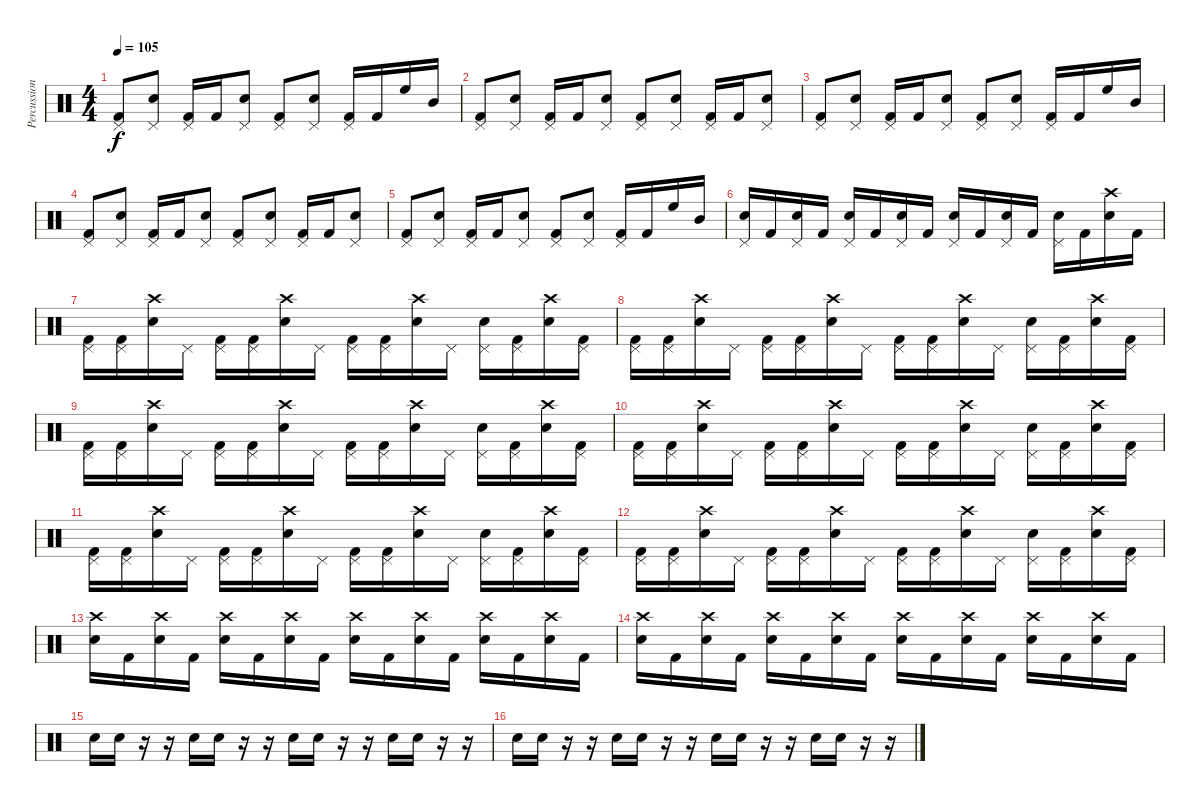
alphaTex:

\track ("Percussion" "Percussion") {instrument percussion}
\staff {score}
\articulation defaults
\ts (4 4)
\tempo 105
\clef neutral
\ks c
("Pedal Hi-Hat (hit)" "Kick (hit) 2").8{dy f} ("Pedal Hi-Hat (hit)" "Electric Snare (hit)").8 ("Pedal Hi-Hat (hit)" "Kick (hit) 2").16 "Kick (hit) 2".16 ("Pedal Hi-Hat (hit)" "Electric Snare (hit)").8 ("Pedal Hi-Hat (hit)" "Kick (hit) 2").8 ("Pedal Hi-Hat (hit)" "Electric Snare (hit)").8 ("Pedal Hi-Hat (hit)" "Kick (hit) 2").16 "Kick (hit) 2".16 "High Floor Tom (hit)".16 "Mid Tom (hit)".16 |
("Pedal Hi-Hat (hit)" "Kick (hit) 2").8 ("Pedal Hi-Hat (hit)" "Electric Snare (hit)").8 ("Pedal Hi-Hat (hit)" "Kick (hit) 2").16 "Kick (hit) 2".16 ("Pedal Hi-Hat (hit)" "Electric Snare (hit)").8 ("Pedal Hi-Hat (hit)" "Kick (hit) 2").8 ("Pedal Hi-Hat (hit)" "Electric Snare (hit)").8 ("Pedal Hi-Hat (hit)" "Kick (hit) 2").16 "Kick (hit) 2".16 ("Pedal Hi-Hat (hit)" "Electric Snare (hit)").8 |
("Pedal Hi-Hat (hit)" "Kick (hit) 2").8 ("Pedal Hi-Hat (hit)" "Electric Snare (hit)").8 ("Pedal Hi-Hat (hit)" "Kick (hit) 2").16 "Kick (hit) 2".16 ("Pedal Hi-Hat (hit)" "Electric Snare (hit)").8 ("Pedal Hi-Hat (hit)" "Kick (hit) 2").8 ("Pedal Hi-Hat (hit)" "Electric Snare (hit)").8 ("Pedal Hi-Hat (hit)" "Kick (hit) 2").16 "Kick (hit) 2".16 "High Floor Tom (hit)".16 "Mid Tom (hit)".16 |
("Pedal Hi-Hat (hit)" "Kick (hit) 2").8 ("Pedal Hi-Hat (hit)" "Electric Snare (hit)").8 ("Pedal Hi-Hat (hit)" "Kick (hit) 2").16 "Kick (hit) 2".16 ("Pedal Hi-Hat (hit)" "Electric Snare (hit)").8 ("Pedal Hi-Hat (hit)" "Kick (hit) 2").8 ("Pedal Hi-Hat (hit)" "Electric Snare (hit)").8 ("Pedal Hi-Hat (hit)" "Kick (hit) 2").16 "Kick (hit) 2".16 ("Pedal Hi-Hat (hit)" "Electric Snare (hit)").8 |
("Pedal Hi-Hat (hit)" "Kick (hit) 2").8 ("Pedal Hi-Hat (hit)" "Electric Snare (hit)").8 ("Pedal Hi-Hat (hit)" "Kick (hit) 2").16 "Kick (hit) 2".16 ("Pedal Hi-Hat (hit)" "Electric Snare (hit)").8 ("Pedal Hi-Hat (hit)" "Kick (hit) 2").8 ("Pedal Hi-Hat (hit)" "Electric Snare (hit)").8 ("Pedal Hi-Hat (hit)" "Kick (hit) 2").16 "Kick (hit) 2".16 "High Floor Tom (hit)".16 "Mid Tom (hit)".16 |
("Pedal Hi-Hat (hit)" "Electric Snare (hit)").16 "Kick (hit) 2".16 ("Pedal Hi-Hat (hit)" "Electric Snare (hit)").16 "Kick (hit) 2".16 ("Pedal Hi-Hat (hit)" "Electric Snare (hit)").16 "Kick (hit) 2".16 ("Pedal Hi-Hat (hit)" "Electric Snare (hit)").16 "Kick (hit) 2".16 ("Pedal Hi-Hat (hit)" "Electric Snare (hit)").16 "Kick (hit) 2".16 ("Pedal Hi-Hat (hit)" "Electric Snare (hit)").16 "Kick (hit) 2".16 ("Pedal Hi-Hat (hit)" "Electric Snare (hit)").16 "Kick (hit) 2".16 ("Crash high (hit)" "Electric Snare (hit)").16 "Kick (hit) 2".16 |
("Pedal Hi-Hat (hit)" "Kick (hit) 2").16 ("Pedal Hi-Hat (hit)" "Kick (hit) 2").16 ("Crash high (hit)" "Electric Snare (hit)").16 "Pedal Hi-Hat (hit)".16 ("Pedal Hi-Hat (hit)" "Kick (hit) 2").16 ("Pedal Hi-Hat (hit)" "Kick (hit) 2").16 ("Crash high (hit)" "Electric Snare (hit)").16 "Pedal Hi-Hat (hit)".16 ("Pedal Hi-Hat (hit)" "Kick (hit) 2").16 ("Pedal Hi-Hat (hit)" "Kick (hit) 2").16 ("Crash high (hit)" "Electric Snare (hit)").16 "Pedal Hi-Hat (hit)".16 ("Pedal Hi-Hat (hit)" "Electric Snare (hit)").16 ("Pedal Hi-Hat (hit)" "Kick (hit) 2").16 ("Crash high (hit)" "Electric Snare (hit)").16 ("Pedal Hi-Hat (hit)" "Kick (hit) 2").16 |
("Pedal Hi-Hat (hit)" "Kick (hit) 2").16 ("Pedal Hi-Hat (hit)" "Kick (hit) 2").16 ("Crash high (hit)" "Electric Snare (hit)").16 "Pedal Hi-Hat (hit)".16 ("Pedal Hi-Hat (hit)" "Kick (hit) 2").16 ("Pedal Hi-Hat (hit)" "Kick (hit) 2").16 ("Crash high (hit)" "Electric Snare (hit)").16 "Pedal Hi-Hat (hit)".16 ("Pedal Hi-Hat (hit)" "Kick (hit) 2").16 ("Pedal Hi-Hat (hit)" "Kick (hit) 2").16 ("Crash high (hit)" "Electric Snare (hit)").16 "Pedal Hi-Hat (hit)".16 ("Pedal Hi-Hat (hit)" "Electric Snare (hit)").16 ("Pedal Hi-Hat (hit)" "Kick (hit) 2").16 ("Crash high (hit)" "Electric Snare (hit)").16 ("Pedal Hi-Hat (hit)" "Kick (hit) 2").16 |
("Pedal Hi-Hat (hit)" "Kick (hit) 2").16 ("Pedal Hi-Hat (hit)" "Kick (hit) 2").16 ("Crash high (hit)" "Electric Snare (hit)").16 "Pedal Hi-Hat (hit)".16 ("Pedal Hi-Hat (hit)" "Kick (hit) 2").16 ("Pedal Hi-Hat (hit)" "Kick (hit) 2").16 ("Crash high (hit)" "Electric Snare (hit)").16 "Pedal Hi-Hat (hit)".16 ("Pedal Hi-Hat (hit)" "Kick (hit) 2").16 ("Pedal Hi-Hat (hit)" "Kick (hit) 2").16 ("Crash high (hit)" "Electric Snare (hit)").16 "Pedal Hi-Hat (hit)".16 ("Pedal Hi-Hat (hit)" "Electric Snare (hit)").16 ("Pedal Hi-Hat (hit)" "Kick (hit) 2").16 ("Crash high (hit)" "Electric Snare (hit)").16 ("Pedal Hi-Hat (hit)" "Kick (hit) 2").16 |
("Pedal Hi-Hat (hit)" "Kick (hit) 2").16 ("Pedal Hi-Hat (hit)" "Kick (hit) 2").16 ("Crash high (hit)" "Electric Snare (hit)").16 "Pedal Hi-Hat (hit)".16 ("Pedal Hi-Hat (hit)" "Kick (hit) 2").16 ("Pedal Hi-Hat (hit)" "Kick (hit) 2").16 ("Crash high (hit)" "Electric Snare (hit)").16 "Pedal Hi-Hat (hit)".16 ("Pedal Hi-Hat (hit)" "Kick (hit) 2").16 ("Pedal Hi-Hat (hit)" "Kick (hit) 2").16 ("Crash high (hit)" "Electric Snare (hit)").16 "Pedal Hi-Hat (hit)".16 ("Pedal Hi-Hat (hit)" "Electric Snare (hit)").16 ("Pedal Hi-Hat (hit)" "Kick (hit) 2").16 ("Crash high (hit)" "Electric Snare (hit)").16 ("Pedal Hi-Hat (hit)" "Kick (hit) 2").16 |
("Pedal Hi-Hat (hit)" "Kick (hit) 2").16 ("Pedal Hi-Hat (hit)" "Kick (hit) 2").16 ("Crash high (hit)" "Electric Snare (hit)").16 "Pedal Hi-Hat (hit)".16 ("Pedal Hi-Hat (hit)" "Kick (hit) 2").16 ("Pedal Hi-Hat (hit)" "Kick (hit) 2").16 ("Crash high (hit)" "Electric Snare (hit)").16 "Pedal Hi-Hat (hit)".16 ("Pedal Hi-Hat (hit)" "Kick (hit) 2").16 ("Pedal Hi-Hat (hit)" "Kick (hit) 2").16 ("Crash high (hit)" "Electric Snare (hit)").16 "Pedal Hi-Hat (hit)".16 ("Pedal Hi-Hat (hit)" "Electric Snare (hit)").16 ("Pedal Hi-Hat (hit)" "Kick (hit) 2").16 ("Crash high (hit)" "Electric Snare (hit)").16 ("Pedal Hi-Hat (hit)" "Kick (hit) 2").16 |
("Pedal Hi-Hat (hit)" "Kick (hit) 2").16 ("Pedal Hi-Hat (hit)" "Kick (hit) 2").16 ("Crash high (hit)" "Electric Snare (hit)").16 "Pedal Hi-Hat (hit)".16 ("Pedal Hi-Hat (hit)" "Kick (hit) 2").16 ("Pedal Hi-Hat (hit)" "Kick (hit) 2").16 ("Crash high (hit)" "Electric Snare (hit)").16 "Pedal Hi-Hat (hit)".16 ("Pedal Hi-Hat (hit)" "Kick (hit) 2").16 ("Pedal Hi-Hat (hit)" "Kick (hit) 2").16 ("Crash high (hit)" "Electric Snare (hit)").16 "Pedal Hi-Hat (hit)".16 ("Pedal Hi-Hat (hit)" "Electric Snare (hit)").16 ("Pedal Hi-Hat (hit)" "Kick (hit) 2").16 ("Crash high (hit)" "Electric Snare (hit)").16 ("Pedal Hi-Hat (hit)" "Kick (hit) 2").16 |
("Crash high (hit)" "Electric Snare (hit)").16 "Kick (hit) 2".16 ("Crash high (hit)" "Electric Snare (hit)").16 "Kick (hit) 2".16 ("Crash high (hit)" "Electric Snare (hit)").16 "Kick (hit) 2".16 ("Crash high (hit)" "Electric Snare (hit)").16 "Kick (hit) 2".16 ("Crash high (hit)" "Electric Snare (hit)").16 "Kick (hit) 2".16 ("Crash high (hit)" "Electric Snare (hit)").16 "Kick (hit) 2".16 ("Crash high (hit)" "Electric Snare (hit)").16 "Kick (hit) 2".16 ("Crash high (hit)" "Electric Snare (hit)").16 "Kick (hit) 2".16 |
("Crash high (hit)" "Electric Snare (hit)").16 "Kick (hit) 2".16 ("Crash high (hit)" "Electric Snare (hit)").16 "Kick (hit) 2".16 ("Crash high (hit)" "Electric Snare (hit)").16 "Kick (hit) 2".16 ("Crash high (hit)" "Electric Snare (hit)").16 "Kick (hit) 2".16 ("Crash high (hit)" "Electric Snare (hit)").16 "Kick (hit) 2".16 ("Crash high (hit)" "Electric Snare (hit)").16 "Kick (hit) 2".16 ("Crash high (hit)" "Electric Snare (hit)").16 "Kick (hit) 2".16 ("Crash high (hit)" "Electric Snare (hit)").16 "Kick (hit) 2".16 |
"Electric Snare (hit)".16 "Electric Snare (hit)".16 r.16 r.16 "Electric Snare (hit)".16 "Electric Snare (hit)".16 r.16 r.16 "Electric Snare (hit)".16 "Electric Snare (hit)".16 r.16 r.16 "Electric Snare (hit)".16 "Electric Snare (hit)".16 r.16 r.16 |
"Electric Snare (hit)".16 "Electric Snare (hit)".16 r.16 r.16 "Electric Snare (hit)".16 "Electric Snare (hit)".16 r.16 r.16 "Electric Snare (hit)".16 "Electric Snare (hit)".16 r.16 r.16 "Electric Snare (hit)".16 "Electric Snare (hit)".16 r.16 r.16
